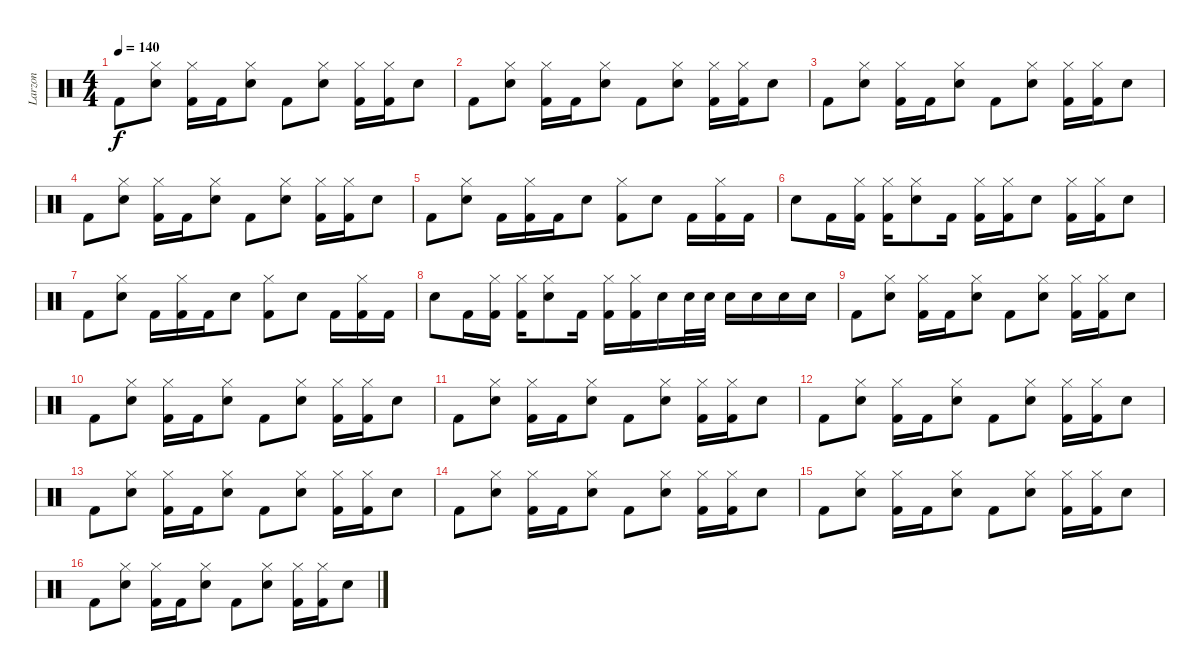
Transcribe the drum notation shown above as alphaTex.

\track ("Larzon" "Larzon") {instrument percussion}
\staff {score}
\articulation defaults
\ts (4 4)
\tempo 140
\clef neutral
\ks c "Kick (hit) 2".8{dy f}
("Hi-Hat (closed)" "Snare (hit) 2").8 ("Hi-Hat (closed)" "Kick (hit) 2").16 "Kick (hit) 2".16 ("Hi-Hat (closed)" "Snare (hit) 2").8 "Kick (hit) 2".8 ("Hi-Hat (closed)" "Snare (hit) 2").8 ("Hi-Hat (closed)" "Kick (hit) 2").16 ("Hi-Hat (closed)" "Kick (hit) 2").16 "Snare (hit) 2".8 |
"Kick (hit) 2".8 ("Hi-Hat (closed)" "Snare (hit) 2").8 ("Hi-Hat (closed)" "Kick (hit) 2").16 "Kick (hit) 2".16 ("Hi-Hat (closed)" "Snare (hit) 2").8 "Kick (hit) 2".8 ("Hi-Hat (closed)" "Snare (hit) 2").8 ("Hi-Hat (closed)" "Kick (hit) 2").16 ("Hi-Hat (closed)" "Kick (hit) 2").16 "Snare (hit) 2".8 |
"Kick (hit) 2".8 ("Hi-Hat (closed)" "Snare (hit) 2").8 ("Hi-Hat (closed)" "Kick (hit) 2").16 "Kick (hit) 2".16 ("Hi-Hat (closed)" "Snare (hit) 2").8 "Kick (hit) 2".8 ("Hi-Hat (closed)" "Snare (hit) 2").8 ("Hi-Hat (closed)" "Kick (hit) 2").16 ("Hi-Hat (closed)" "Kick (hit) 2").16 "Snare (hit) 2".8 |
"Kick (hit) 2".8 ("Hi-Hat (closed)" "Snare (hit) 2").8 ("Hi-Hat (closed)" "Kick (hit) 2").16 "Kick (hit) 2".16 ("Hi-Hat (closed)" "Snare (hit) 2").8 "Kick (hit) 2".8 ("Hi-Hat (closed)" "Snare (hit) 2").8 ("Hi-Hat (closed)" "Kick (hit) 2").16 ("Hi-Hat (closed)" "Kick (hit) 2").16 "Snare (hit) 2".8 |
"Kick (hit) 2".8 ("Hi-Hat (closed)" "Snare (hit) 2").8 "Kick (hit) 2".16 ("Hi-Hat (closed)" "Kick (hit) 2").16 "Kick (hit) 2".16 "Snare (hit) 2".8 ("Hi-Hat (closed)" "Kick (hit) 2").8 "Snare (hit) 2".8 "Kick (hit) 2".16 ("Hi-Hat (closed)" "Kick (hit) 2").16 "Kick (hit) 2".16 |
"Snare (hit) 2".8 "Kick (hit) 2".16 ("Hi-Hat (closed)" "Kick (hit) 2").16 ("Hi-Hat (closed)" "Kick (hit) 2").16 ("Hi-Hat (closed)" "Snare (hit) 2").8 "Kick (hit) 2".16 ("Hi-Hat (closed)" "Kick (hit) 2").16 ("Hi-Hat (closed)" "Kick (hit) 2").16 "Snare (hit) 2".8 ("Hi-Hat (closed)" "Kick (hit) 2").16 ("Hi-Hat (closed)" "Kick (hit) 2").16 "Snare (hit) 2".8 |
"Kick (hit) 2".8 ("Hi-Hat (closed)" "Snare (hit) 2").8 "Kick (hit) 2".16 ("Hi-Hat (closed)" "Kick (hit) 2").16 "Kick (hit) 2".16 "Snare (hit) 2".8 ("Hi-Hat (closed)" "Kick (hit) 2").8 "Snare (hit) 2".8 "Kick (hit) 2".16 ("Hi-Hat (closed)" "Kick (hit) 2").16 "Kick (hit) 2".16 |
"Snare (hit) 2".8 "Kick (hit) 2".16 ("Hi-Hat (closed)" "Kick (hit) 2").16 ("Hi-Hat (closed)" "Kick (hit) 2").16 ("Hi-Hat (closed)" "Snare (hit) 2").8 "Kick (hit) 2".16 ("Hi-Hat (closed)" "Kick (hit) 2").16 ("Hi-Hat (closed)" "Kick (hit) 2").16 "Snare (hit) 2".16 "Snare (hit) 2".32 "Snare (hit) 2".32 "Snare (hit) 2".16 "Snare (hit) 2".16 "Snare (hit) 2".16 "Snare (hit) 2".16 |
"Kick (hit) 2".8 ("Hi-Hat (closed)" "Snare (hit) 2").8 ("Hi-Hat (closed)" "Kick (hit) 2").16 "Kick (hit) 2".16 ("Hi-Hat (closed)" "Snare (hit) 2").8 "Kick (hit) 2".8 ("Hi-Hat (closed)" "Snare (hit) 2").8 ("Hi-Hat (closed)" "Kick (hit) 2").16 ("Hi-Hat (closed)" "Kick (hit) 2").16 "Snare (hit) 2".8 |
"Kick (hit) 2".8 ("Hi-Hat (closed)" "Snare (hit) 2").8 ("Hi-Hat (closed)" "Kick (hit) 2").16 "Kick (hit) 2".16 ("Hi-Hat (closed)" "Snare (hit) 2").8 "Kick (hit) 2".8 ("Hi-Hat (closed)" "Snare (hit) 2").8 ("Hi-Hat (closed)" "Kick (hit) 2").16 ("Hi-Hat (closed)" "Kick (hit) 2").16 "Snare (hit) 2".8 |
"Kick (hit) 2".8 ("Hi-Hat (closed)" "Snare (hit) 2").8 ("Hi-Hat (closed)" "Kick (hit) 2").16 "Kick (hit) 2".16 ("Hi-Hat (closed)" "Snare (hit) 2").8 "Kick (hit) 2".8 ("Hi-Hat (closed)" "Snare (hit) 2").8 ("Hi-Hat (closed)" "Kick (hit) 2").16 ("Hi-Hat (closed)" "Kick (hit) 2").16 "Snare (hit) 2".8 |
"Kick (hit) 2".8 ("Hi-Hat (closed)" "Snare (hit) 2").8 ("Hi-Hat (closed)" "Kick (hit) 2").16 "Kick (hit) 2".16 ("Hi-Hat (closed)" "Snare (hit) 2").8 "Kick (hit) 2".8 ("Hi-Hat (closed)" "Snare (hit) 2").8 ("Hi-Hat (closed)" "Kick (hit) 2").16 ("Hi-Hat (closed)" "Kick (hit) 2").16 "Snare (hit) 2".8 |
"Kick (hit) 2".8 ("Hi-Hat (closed)" "Snare (hit) 2").8 ("Hi-Hat (closed)" "Kick (hit) 2").16 "Kick (hit) 2".16 ("Hi-Hat (closed)" "Snare (hit) 2").8 "Kick (hit) 2".8 ("Hi-Hat (closed)" "Snare (hit) 2").8 ("Hi-Hat (closed)" "Kick (hit) 2").16 ("Hi-Hat (closed)" "Kick (hit) 2").16 "Snare (hit) 2".8 |
"Kick (hit) 2".8 ("Hi-Hat (closed)" "Snare (hit) 2").8 ("Hi-Hat (closed)" "Kick (hit) 2").16 "Kick (hit) 2".16 ("Hi-Hat (closed)" "Snare (hit) 2").8 "Kick (hit) 2".8 ("Hi-Hat (closed)" "Snare (hit) 2").8 ("Hi-Hat (closed)" "Kick (hit) 2").16 ("Hi-Hat (closed)" "Kick (hit) 2").16 "Snare (hit) 2".8 |
"Kick (hit) 2".8 ("Hi-Hat (closed)" "Snare (hit) 2").8 ("Hi-Hat (closed)" "Kick (hit) 2").16 "Kick (hit) 2".16 ("Hi-Hat (closed)" "Snare (hit) 2").8 "Kick (hit) 2".8 ("Hi-Hat (closed)" "Snare (hit) 2").8 ("Hi-Hat (closed)" "Kick (hit) 2").16 ("Hi-Hat (closed)" "Kick (hit) 2").16 "Snare (hit) 2".8 |
"Kick (hit) 2".8 ("Hi-Hat (closed)" "Snare (hit) 2").8 ("Hi-Hat (closed)" "Kick (hit) 2").16 "Kick (hit) 2".16 ("Hi-Hat (closed)" "Snare (hit) 2").8 "Kick (hit) 2".8 ("Hi-Hat (closed)" "Snare (hit) 2").8 ("Hi-Hat (closed)" "Kick (hit) 2").16 ("Hi-Hat (closed)" "Kick (hit) 2").16 "Snare (hit) 2".8
